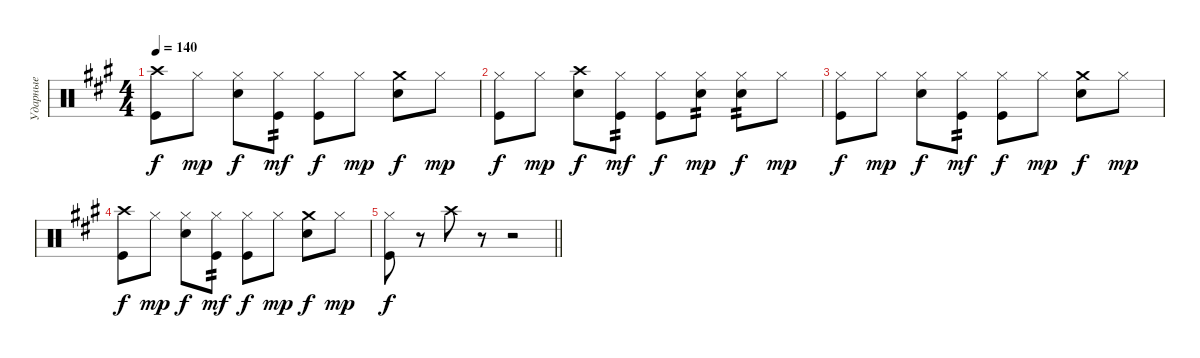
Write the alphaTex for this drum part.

\track ("Ударные" "Ударные") {instrument percussion}
\staff {score}
\articulation defaults
\ts (4 4)
\tempo 140
\clef neutral
\ks f#minor
("Crash high (hit)" "Kick (hit)").8{dy f} "Hi-Hat (closed)".8{dy mp} ("Hi-Hat (closed)" "Snare (hit) 2").8{dy f} ("Hi-Hat (closed)" "Kick (hit)").8{tp 2 dy mf} ("Hi-Hat (closed)" "Kick (hit)").8{dy f} "Hi-Hat (closed)".8{dy mp} ("Crash medium (hit)" "Snare (hit) 2").8{dy f} "Hi-Hat (closed)".8{dy mp} |
("Hi-Hat (closed)" "Kick (hit)").8{dy f} "Hi-Hat (closed)".8{dy mp} ("Crash high (hit)" "Snare (hit) 2").8{dy f} ("Hi-Hat (closed)" "Kick (hit)").8{tp 2 dy mf} ("Hi-Hat (closed)" "Kick (hit)").8{dy f} ("Hi-Hat (closed)" "Snare (hit) 2").8{tp 2 dy mp} ("Hi-Hat (closed)" "Snare (hit) 2").8{tp 2 dy f} "Hi-Hat (closed)".8{dy mp} |
("Hi-Hat (closed)" "Kick (hit)").8{dy f} "Hi-Hat (closed)".8{dy mp} ("Hi-Hat (closed)" "Snare (hit) 2").8{dy f} ("Hi-Hat (closed)" "Kick (hit)").8{tp 2 dy mf} ("Hi-Hat (closed)" "Kick (hit)").8{dy f} "Hi-Hat (closed)".8{dy mp} ("Crash medium (hit)" "Snare (hit) 2").8{dy f} "Hi-Hat (closed)".8{dy mp} |
("Crash high (hit)" "Kick (hit)").8{dy f} "Hi-Hat (closed)".8{dy mp} ("Hi-Hat (closed)" "Snare (hit) 2").8{dy f} ("Hi-Hat (closed)" "Kick (hit)").8{tp 2 dy mf} ("Hi-Hat (closed)" "Kick (hit)").8{dy f} "Hi-Hat (closed)".8{dy mp} ("Crash medium (hit)" "Snare (hit) 2").8{dy f} "Hi-Hat (closed)".8{dy mp} |
\barLineRight lightlight
("Hi-Hat (closed)" "Kick (hit)").8{dy f} r.8 "Crash high (hit)".8 r.8 r.2
